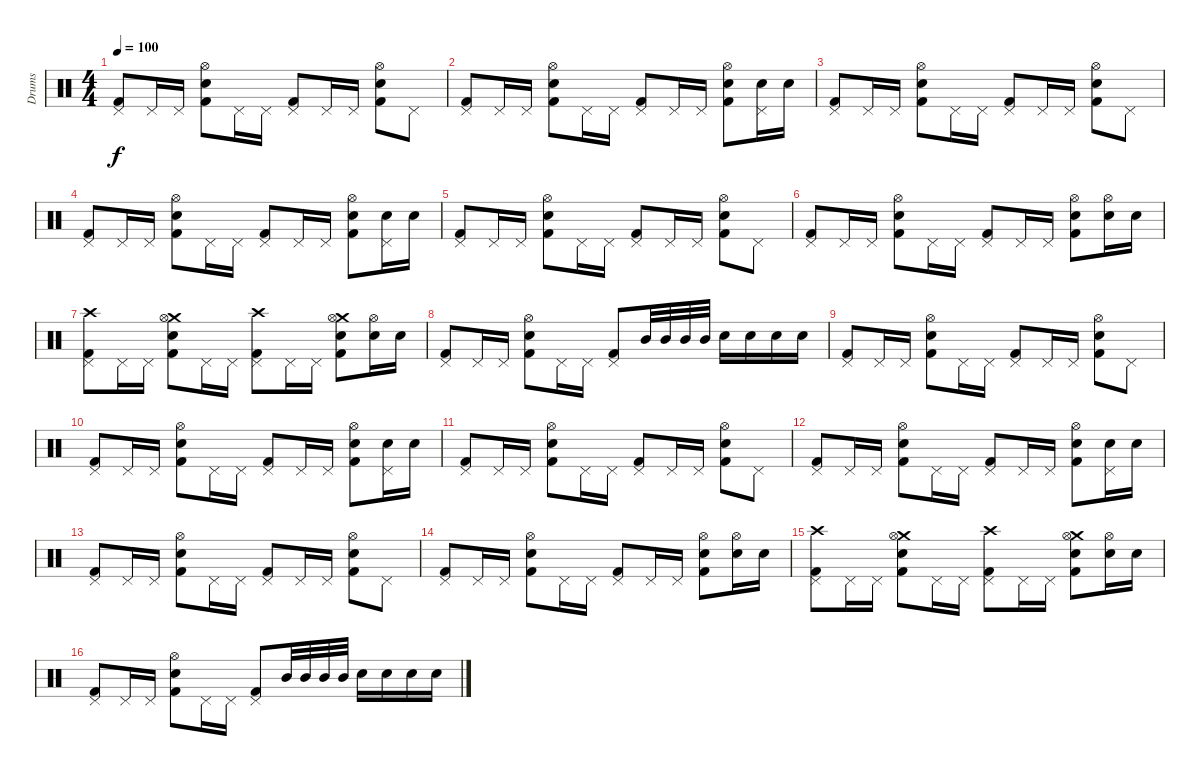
\track ("Drums" "Drums") {instrument percussion}
\staff
\articulation defaults
\ts (4 4)
\tempo 100
\clef neutral
\ks c
("Pedal Hi-Hat (hit)" "Kick (hit) 2").8{dy f} "Pedal Hi-Hat (hit)".16 "Pedal Hi-Hat (hit)".16 ("Electric Snare (hit)" "Hi-Hat (open)" "Kick (hit) 2").8 "Pedal Hi-Hat (hit)".16 "Pedal Hi-Hat (hit)".16 ("Pedal Hi-Hat (hit)" "Kick (hit) 2").8 "Pedal Hi-Hat (hit)".16 "Pedal Hi-Hat (hit)".16 ("Electric Snare (hit)" "Hi-Hat (open)" "Kick (hit) 2").8 "Pedal Hi-Hat (hit)".8 |
("Pedal Hi-Hat (hit)" "Kick (hit) 2").8 "Pedal Hi-Hat (hit)".16 "Pedal Hi-Hat (hit)".16 ("Electric Snare (hit)" "Hi-Hat (open)" "Kick (hit) 2").8 "Pedal Hi-Hat (hit)".16 "Pedal Hi-Hat (hit)".16 ("Pedal Hi-Hat (hit)" "Kick (hit) 2").8 "Pedal Hi-Hat (hit)".16 "Pedal Hi-Hat (hit)".16 ("Electric Snare (hit)" "Hi-Hat (open)" "Kick (hit) 2").8 ("Pedal Hi-Hat (hit)" "Electric Snare (hit)").16 "Electric Snare (hit)".16 |
("Pedal Hi-Hat (hit)" "Kick (hit) 2").8 "Pedal Hi-Hat (hit)".16 "Pedal Hi-Hat (hit)".16 ("Electric Snare (hit)" "Hi-Hat (open)" "Kick (hit) 2").8 "Pedal Hi-Hat (hit)".16 "Pedal Hi-Hat (hit)".16 ("Pedal Hi-Hat (hit)" "Kick (hit) 2").8 "Pedal Hi-Hat (hit)".16 "Pedal Hi-Hat (hit)".16 ("Electric Snare (hit)" "Hi-Hat (open)" "Kick (hit) 2").8 "Pedal Hi-Hat (hit)".8 |
("Pedal Hi-Hat (hit)" "Kick (hit) 2").8 "Pedal Hi-Hat (hit)".16 "Pedal Hi-Hat (hit)".16 ("Electric Snare (hit)" "Hi-Hat (open)" "Kick (hit) 2").8 "Pedal Hi-Hat (hit)".16 "Pedal Hi-Hat (hit)".16 ("Pedal Hi-Hat (hit)" "Kick (hit) 2").8 "Pedal Hi-Hat (hit)".16 "Pedal Hi-Hat (hit)".16 ("Electric Snare (hit)" "Hi-Hat (open)" "Kick (hit) 2").8 ("Pedal Hi-Hat (hit)" "Electric Snare (hit)").16 "Electric Snare (hit)".16 |
("Pedal Hi-Hat (hit)" "Kick (hit) 2").8 "Pedal Hi-Hat (hit)".16 "Pedal Hi-Hat (hit)".16 ("Electric Snare (hit)" "Hi-Hat (open)" "Kick (hit) 2").8 "Pedal Hi-Hat (hit)".16 "Pedal Hi-Hat (hit)".16 ("Pedal Hi-Hat (hit)" "Kick (hit) 2").8 "Pedal Hi-Hat (hit)".16 "Pedal Hi-Hat (hit)".16 ("Electric Snare (hit)" "Hi-Hat (open)" "Kick (hit) 2").8 "Pedal Hi-Hat (hit)".8 |
("Pedal Hi-Hat (hit)" "Kick (hit) 2").8 "Pedal Hi-Hat (hit)".16 "Pedal Hi-Hat (hit)".16 ("Electric Snare (hit)" "Hi-Hat (open)" "Kick (hit) 2").8 "Pedal Hi-Hat (hit)".16 "Pedal Hi-Hat (hit)".16 ("Pedal Hi-Hat (hit)" "Kick (hit) 2").8 "Pedal Hi-Hat (hit)".16 "Pedal Hi-Hat (hit)".16 ("Electric Snare (hit)" "Hi-Hat (open)" "Kick (hit) 2").8 ("Hi-Hat (open)" "Electric Snare (hit)").16 "Electric Snare (hit)".16 |
("Crash high (hit)" "Pedal Hi-Hat (hit)" "Kick (hit) 2").8 "Pedal Hi-Hat (hit)".16 "Pedal Hi-Hat (hit)".16 ("Crash medium (hit)" "Electric Snare (hit)" "Hi-Hat (open)" "Kick (hit) 2").8 "Pedal Hi-Hat (hit)".16 "Pedal Hi-Hat (hit)".16 ("Crash high (hit)" "Pedal Hi-Hat (hit)" "Kick (hit) 2").8 "Pedal Hi-Hat (hit)".16 "Pedal Hi-Hat (hit)".16 ("Crash medium (hit)" "Electric Snare (hit)" "Hi-Hat (open)" "Kick (hit) 2").8 ("Hi-Hat (open)" "Electric Snare (hit)").16 "Electric Snare (hit)".16 |
("Pedal Hi-Hat (hit)" "Kick (hit) 2").8 "Pedal Hi-Hat (hit)".16 "Pedal Hi-Hat (hit)".16 ("Electric Snare (hit)" "Hi-Hat (open)" "Kick (hit) 2").8 "Pedal Hi-Hat (hit)".16 "Pedal Hi-Hat (hit)".16 ("Pedal Hi-Hat (hit)" "Kick (hit) 2").8 "Mid Tom (hit)".32 "Mid Tom (hit)".32 "Mid Tom (hit)".32 "Mid Tom (hit)".32 "Electric Snare (hit)".16 "Electric Snare (hit)".16 "Electric Snare (hit)".16 "Electric Snare (hit)".16 |
("Pedal Hi-Hat (hit)" "Kick (hit) 2").8 "Pedal Hi-Hat (hit)".16 "Pedal Hi-Hat (hit)".16 ("Electric Snare (hit)" "Hi-Hat (open)" "Kick (hit) 2").8 "Pedal Hi-Hat (hit)".16 "Pedal Hi-Hat (hit)".16 ("Pedal Hi-Hat (hit)" "Kick (hit) 2").8 "Pedal Hi-Hat (hit)".16 "Pedal Hi-Hat (hit)".16 ("Electric Snare (hit)" "Hi-Hat (open)" "Kick (hit) 2").8 "Pedal Hi-Hat (hit)".8 |
("Pedal Hi-Hat (hit)" "Kick (hit) 2").8 "Pedal Hi-Hat (hit)".16 "Pedal Hi-Hat (hit)".16 ("Electric Snare (hit)" "Hi-Hat (open)" "Kick (hit) 2").8 "Pedal Hi-Hat (hit)".16 "Pedal Hi-Hat (hit)".16 ("Pedal Hi-Hat (hit)" "Kick (hit) 2").8 "Pedal Hi-Hat (hit)".16 "Pedal Hi-Hat (hit)".16 ("Electric Snare (hit)" "Hi-Hat (open)" "Kick (hit) 2").8 ("Pedal Hi-Hat (hit)" "Electric Snare (hit)").16 "Electric Snare (hit)".16 |
("Pedal Hi-Hat (hit)" "Kick (hit) 2").8 "Pedal Hi-Hat (hit)".16 "Pedal Hi-Hat (hit)".16 ("Electric Snare (hit)" "Hi-Hat (open)" "Kick (hit) 2").8 "Pedal Hi-Hat (hit)".16 "Pedal Hi-Hat (hit)".16 ("Pedal Hi-Hat (hit)" "Kick (hit) 2").8 "Pedal Hi-Hat (hit)".16 "Pedal Hi-Hat (hit)".16 ("Electric Snare (hit)" "Hi-Hat (open)" "Kick (hit) 2").8 "Pedal Hi-Hat (hit)".8 |
("Pedal Hi-Hat (hit)" "Kick (hit) 2").8 "Pedal Hi-Hat (hit)".16 "Pedal Hi-Hat (hit)".16 ("Electric Snare (hit)" "Hi-Hat (open)" "Kick (hit) 2").8 "Pedal Hi-Hat (hit)".16 "Pedal Hi-Hat (hit)".16 ("Pedal Hi-Hat (hit)" "Kick (hit) 2").8 "Pedal Hi-Hat (hit)".16 "Pedal Hi-Hat (hit)".16 ("Electric Snare (hit)" "Hi-Hat (open)" "Kick (hit) 2").8 ("Pedal Hi-Hat (hit)" "Electric Snare (hit)").16 "Electric Snare (hit)".16 |
("Pedal Hi-Hat (hit)" "Kick (hit) 2").8 "Pedal Hi-Hat (hit)".16 "Pedal Hi-Hat (hit)".16 ("Electric Snare (hit)" "Hi-Hat (open)" "Kick (hit) 2").8 "Pedal Hi-Hat (hit)".16 "Pedal Hi-Hat (hit)".16 ("Pedal Hi-Hat (hit)" "Kick (hit) 2").8 "Pedal Hi-Hat (hit)".16 "Pedal Hi-Hat (hit)".16 ("Electric Snare (hit)" "Hi-Hat (open)" "Kick (hit) 2").8 "Pedal Hi-Hat (hit)".8 |
("Pedal Hi-Hat (hit)" "Kick (hit) 2").8 "Pedal Hi-Hat (hit)".16 "Pedal Hi-Hat (hit)".16 ("Electric Snare (hit)" "Hi-Hat (open)" "Kick (hit) 2").8 "Pedal Hi-Hat (hit)".16 "Pedal Hi-Hat (hit)".16 ("Pedal Hi-Hat (hit)" "Kick (hit) 2").8 "Pedal Hi-Hat (hit)".16 "Pedal Hi-Hat (hit)".16 ("Electric Snare (hit)" "Hi-Hat (open)" "Kick (hit) 2").8 ("Hi-Hat (open)" "Electric Snare (hit)").16 "Electric Snare (hit)".16 |
("Crash high (hit)" "Pedal Hi-Hat (hit)" "Kick (hit) 2").8 "Pedal Hi-Hat (hit)".16 "Pedal Hi-Hat (hit)".16 ("Crash medium (hit)" "Electric Snare (hit)" "Hi-Hat (open)" "Kick (hit) 2").8 "Pedal Hi-Hat (hit)".16 "Pedal Hi-Hat (hit)".16 ("Crash high (hit)" "Pedal Hi-Hat (hit)" "Kick (hit) 2").8 "Pedal Hi-Hat (hit)".16 "Pedal Hi-Hat (hit)".16 ("Crash medium (hit)" "Electric Snare (hit)" "Hi-Hat (open)" "Kick (hit) 2").8 ("Hi-Hat (open)" "Electric Snare (hit)").16 "Electric Snare (hit)".16 |
("Pedal Hi-Hat (hit)" "Kick (hit) 2").8 "Pedal Hi-Hat (hit)".16 "Pedal Hi-Hat (hit)".16 ("Electric Snare (hit)" "Hi-Hat (open)" "Kick (hit) 2").8 "Pedal Hi-Hat (hit)".16 "Pedal Hi-Hat (hit)".16 ("Pedal Hi-Hat (hit)" "Kick (hit) 2").8 "Mid Tom (hit)".32 "Mid Tom (hit)".32 "Mid Tom (hit)".32 "Mid Tom (hit)".32 "Electric Snare (hit)".16 "Electric Snare (hit)".16 "Electric Snare (hit)".16 "Electric Snare (hit)".16
